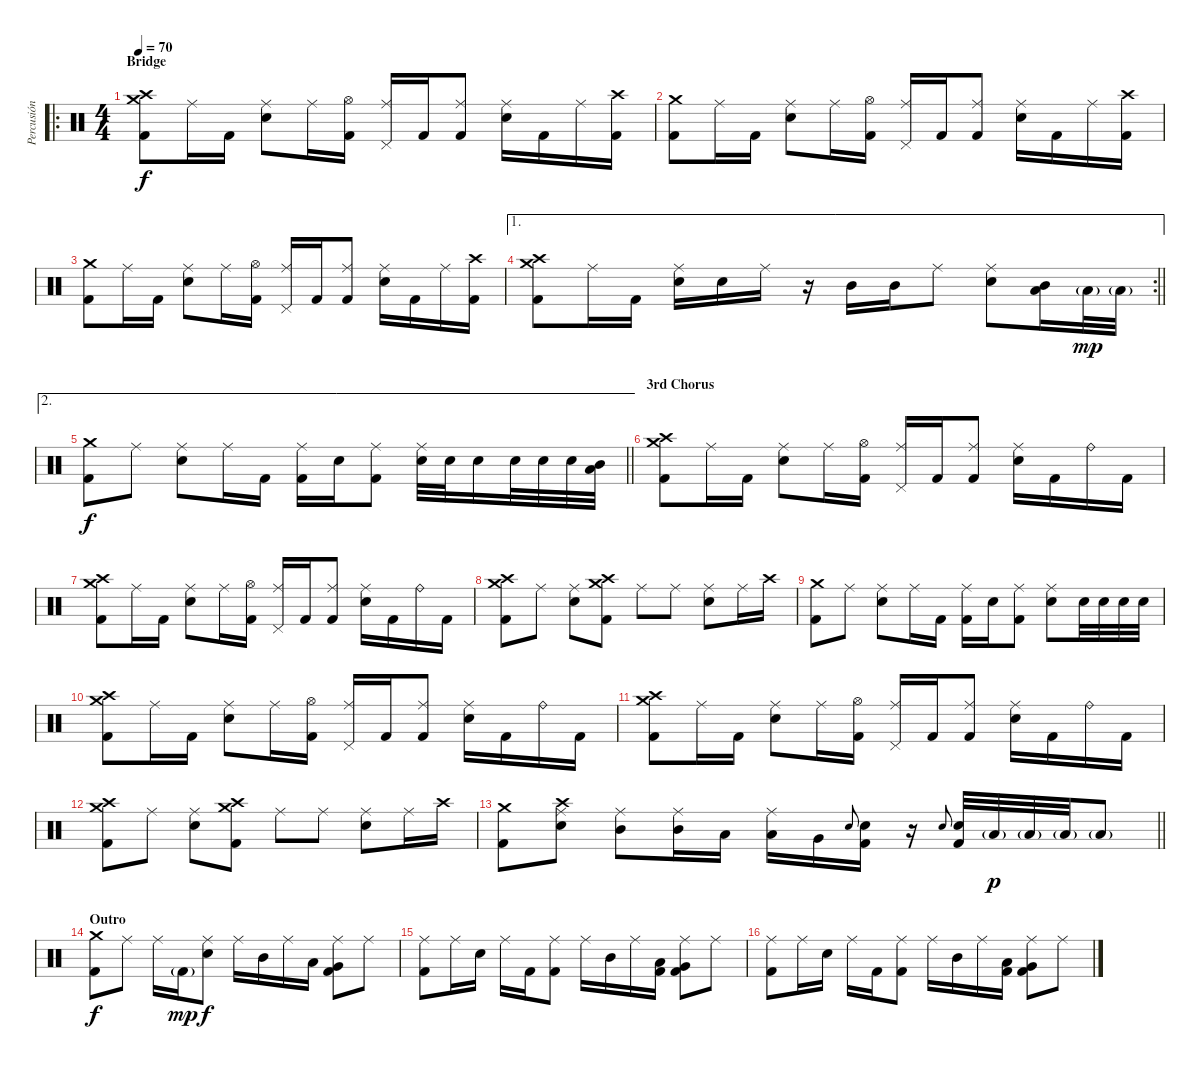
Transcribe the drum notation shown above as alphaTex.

\track ("Percusión" "Percusión") {instrument percussion}
\staff {score}
\articulation defaults
\ro
\ts (4 4)
\section ("" "Bridge")
\tempo 70
\clef neutral
\ks c
("Crash medium (hit)" "Crash high (hit)" "Kick (hit) 2").8{dy f} "Ride (middle)".16 "Kick (hit) 2".16 ("Ride (middle)" "Electric Snare (hit)").8 "Ride (middle)".16 ("Hi-Hat (open)" "Kick (hit) 2").16 ("Ride (middle)" "Pedal Hi-Hat (hit)").16 "Kick (hit) 2".16 ("Ride (middle)" "Kick (hit) 2").8 ("Ride (middle)" "Electric Snare (hit)").16 "Kick (hit) 2".16 "Ride (middle)".16 ("Crash high (hit)" "Kick (hit) 2").16 |
("Crash medium (hit)" "Kick (hit) 2").8 "Ride (middle)".16 "Kick (hit) 2".16 ("Ride (middle)" "Electric Snare (hit)").8 "Ride (middle)".16 ("Hi-Hat (open)" "Kick (hit) 2").16 ("Ride (middle)" "Pedal Hi-Hat (hit)").16 "Kick (hit) 2".16 ("Ride (middle)" "Kick (hit) 2").8 ("Ride (middle)" "Electric Snare (hit)").16 "Kick (hit) 2".16 "Ride (middle)".16 ("Crash high (hit)" "Kick (hit) 2").16 |
("Crash medium (hit)" "Kick (hit) 2").8 "Ride (middle)".16 "Kick (hit) 2".16 ("Ride (middle)" "Electric Snare (hit)").8 "Ride (middle)".16 ("Hi-Hat (open)" "Kick (hit) 2").16 ("Ride (middle)" "Pedal Hi-Hat (hit)").16 "Kick (hit) 2".16 ("Ride (middle)" "Kick (hit) 2").8 ("Ride (middle)" "Electric Snare (hit)").16 "Kick (hit) 2".16 "Ride (middle)".16 ("Crash high (hit)" "Kick (hit) 2").16 |
\ae 1
\rc 2
\barLineRight lightlight
("Crash medium (hit)" "Crash high (hit)" "Kick (hit) 2").8 "Ride (middle)".16 "Kick (hit) 2".16 ("Ride (middle)" "Electric Snare (hit)").16 "Electric Snare (hit)".16 "Ride (middle)".16 r.16 "Mid Tom (hit)".16 "Mid Tom (hit)".16 "Ride (middle)".8 ("Ride (middle)" "Electric Snare (hit)").8 ("Mid Tom (hit)" "Low Tom (hit)").16 "Low Floor Tom (hit)"{g}.32{dy mp} "Low Floor Tom (hit)"{g}.32 |
\ae 2
\barLineRight lightlight
("Crash medium (hit)" "Kick (hit) 2").8{dy f} "Ride (middle)".8 ("Ride (middle)" "Electric Snare (hit)").8 "Ride (middle)".16 "Kick (hit) 2".16 ("Ride (middle)" "Kick (hit) 2").16 "Electric Snare (hit)".16 ("Ride (middle)" "Kick (hit) 2").8 ("Ride (middle)" "Electric Snare (hit)").32 "Electric Snare (hit)".32 "Electric Snare (hit)".16 "Electric Snare (hit)".32 "Electric Snare (hit)".32 "Electric Snare (hit)".32 ("Mid Tom (hit)" "Low Tom (hit)").32 |
\section ("" "3rd Chorus")
("Crash medium (hit)" "Crash high (hit)" "Kick (hit) 2").8 "Ride (middle)".16 "Kick (hit) 2".16 ("Ride (middle)" "Electric Snare (hit)").8 "Ride (middle)".16 ("Hi-Hat (open)" "Kick (hit) 2").16 ("Ride (middle)" "Pedal Hi-Hat (hit)").16 "Kick (hit) 2".16 ("Ride (middle)" "Kick (hit) 2").8 ("Ride (middle)" "Electric Snare (hit)").16 "Kick (hit) 2".16 "Ride (bell)".16 "Kick (hit) 2".16 |
("Crash medium (hit)" "Crash high (hit)" "Kick (hit) 2").8 "Ride (middle)".16 "Kick (hit) 2".16 ("Ride (middle)" "Electric Snare (hit)").8 "Ride (middle)".16 ("Hi-Hat (open)" "Kick (hit) 2").16 ("Ride (middle)" "Pedal Hi-Hat (hit)").16 "Kick (hit) 2".16 ("Ride (middle)" "Kick (hit) 2").8 ("Ride (middle)" "Electric Snare (hit)").16 "Kick (hit) 2".16 "Ride (bell)".16 "Kick (hit) 2".16 |
("Crash medium (hit)" "Crash high (hit)" "Kick (hit) 2").8 "Ride (middle)".8 ("Ride (middle)" "Electric Snare (hit)").8 ("Crash medium (hit)" "Crash high (hit)" "Kick (hit) 2").8 "Ride (middle)".8 "Ride (middle)".8 ("Ride (middle)" "Electric Snare (hit)").8 "Ride (middle)".16 "Crash high (hit)".16 |
("Crash medium (hit)" "Kick (hit) 2").8 "Ride (middle)".8 ("Ride (middle)" "Electric Snare (hit)").8 "Ride (middle)".16 "Kick (hit) 2".16 ("Ride (middle)" "Kick (hit) 2").16 "Electric Snare (hit)".16 ("Ride (middle)" "Kick (hit) 2").8 ("Ride (middle)" "Electric Snare (hit)").8 "Electric Snare (hit)".32 "Electric Snare (hit)".32 "Electric Snare (hit)".32 "Electric Snare (hit)".32 |
("Crash medium (hit)" "Crash high (hit)" "Kick (hit) 2").8 "Ride (middle)".16 "Kick (hit) 2".16 ("Ride (middle)" "Electric Snare (hit)").8 "Ride (middle)".16 ("Hi-Hat (open)" "Kick (hit) 2").16 ("Ride (middle)" "Pedal Hi-Hat (hit)").16 "Kick (hit) 2".16 ("Ride (middle)" "Kick (hit) 2").8 ("Ride (middle)" "Electric Snare (hit)").16 "Kick (hit) 2".16 "Ride (bell)".16 "Kick (hit) 2".16 |
("Crash medium (hit)" "Crash high (hit)" "Kick (hit) 2").8 "Ride (middle)".16 "Kick (hit) 2".16 ("Ride (middle)" "Electric Snare (hit)").8 "Ride (middle)".16 ("Hi-Hat (open)" "Kick (hit) 2").16 ("Ride (middle)" "Pedal Hi-Hat (hit)").16 "Kick (hit) 2".16 ("Ride (middle)" "Kick (hit) 2").8 ("Ride (middle)" "Electric Snare (hit)").16 "Kick (hit) 2".16 "Ride (bell)".16 "Kick (hit) 2".16 |
("Crash medium (hit)" "Crash high (hit)" "Kick (hit) 2").8 "Ride (middle)".8 ("Ride (middle)" "Electric Snare (hit)").8 ("Crash medium (hit)" "Crash high (hit)" "Kick (hit) 2").8 "Ride (middle)".8 "Ride (middle)".8 ("Ride (middle)" "Electric Snare (hit)").8 "Ride (middle)".16 "Crash high (hit)".16 |
\barLineRight lightlight
("Crash medium (hit)" "Kick (hit) 2").8 ("Crash high (hit)" "Ride (middle)" "Electric Snare (hit)").8 ("Ride (middle)" "Mid Tom (hit)").8 ("Ride (middle)" "Mid Tom (hit)").16 "Low Tom (hit)".16 ("Ride (middle)" "Low Tom (hit)").16 "Very Low Tom (hit)".16 "Electric Snare (hit)".8{gr onbeat} ("Electric Snare (hit)" "Kick (hit) 2").16 r.16 "Electric Snare (hit)".8{gr onbeat} ("Electric Snare (hit)" "Kick (hit) 2").32 "Low Floor Tom (hit)"{g}.32{dy p} "Low Floor Tom (hit)"{g}.32 "Low Floor Tom (hit)"{g}.32 "Low Floor Tom (hit)"{g}.8 |
\section ("" "Outro")
("Crash medium (hit)" "Kick (hit) 2").8{dy f} "Ride (middle)".8 "Ride (middle)".16 "Kick (hit) 2"{g}.16{dy mp} ("Ride (middle)" "Electric Snare (hit)").8{dy f} "Ride (middle)".16 "Mid Tom (hit)".16 "Ride (middle)".16 "Low Tom (hit)".16 ("Ride (middle)" "Very Low Tom (hit)" "Kick (hit) 2").8 "Ride (middle)".8 |
("Ride (middle)" "Kick (hit) 2").8 "Ride (middle)".16 "Electric Snare (hit)".16 "Ride (middle)".16 "Kick (hit) 2".16 ("Ride (middle)" "Kick (hit) 2").8 "Ride (middle)".16 "Mid Tom (hit)".16 "Ride (middle)".16 ("Low Tom (hit)" "Kick (hit) 2").16 ("Ride (middle)" "Very Low Tom (hit)" "Kick (hit) 2").8 "Ride (middle)".8 |
("Ride (middle)" "Kick (hit) 2").8 "Ride (middle)".16 "Electric Snare (hit)".16 "Ride (middle)".16 "Kick (hit) 2".16 ("Ride (middle)" "Kick (hit) 2").8 "Ride (middle)".16 "Mid Tom (hit)".16 "Ride (middle)".16 ("Low Tom (hit)" "Kick (hit) 2").16 ("Ride (middle)" "Very Low Tom (hit)" "Kick (hit) 2").8 "Ride (middle)".8
